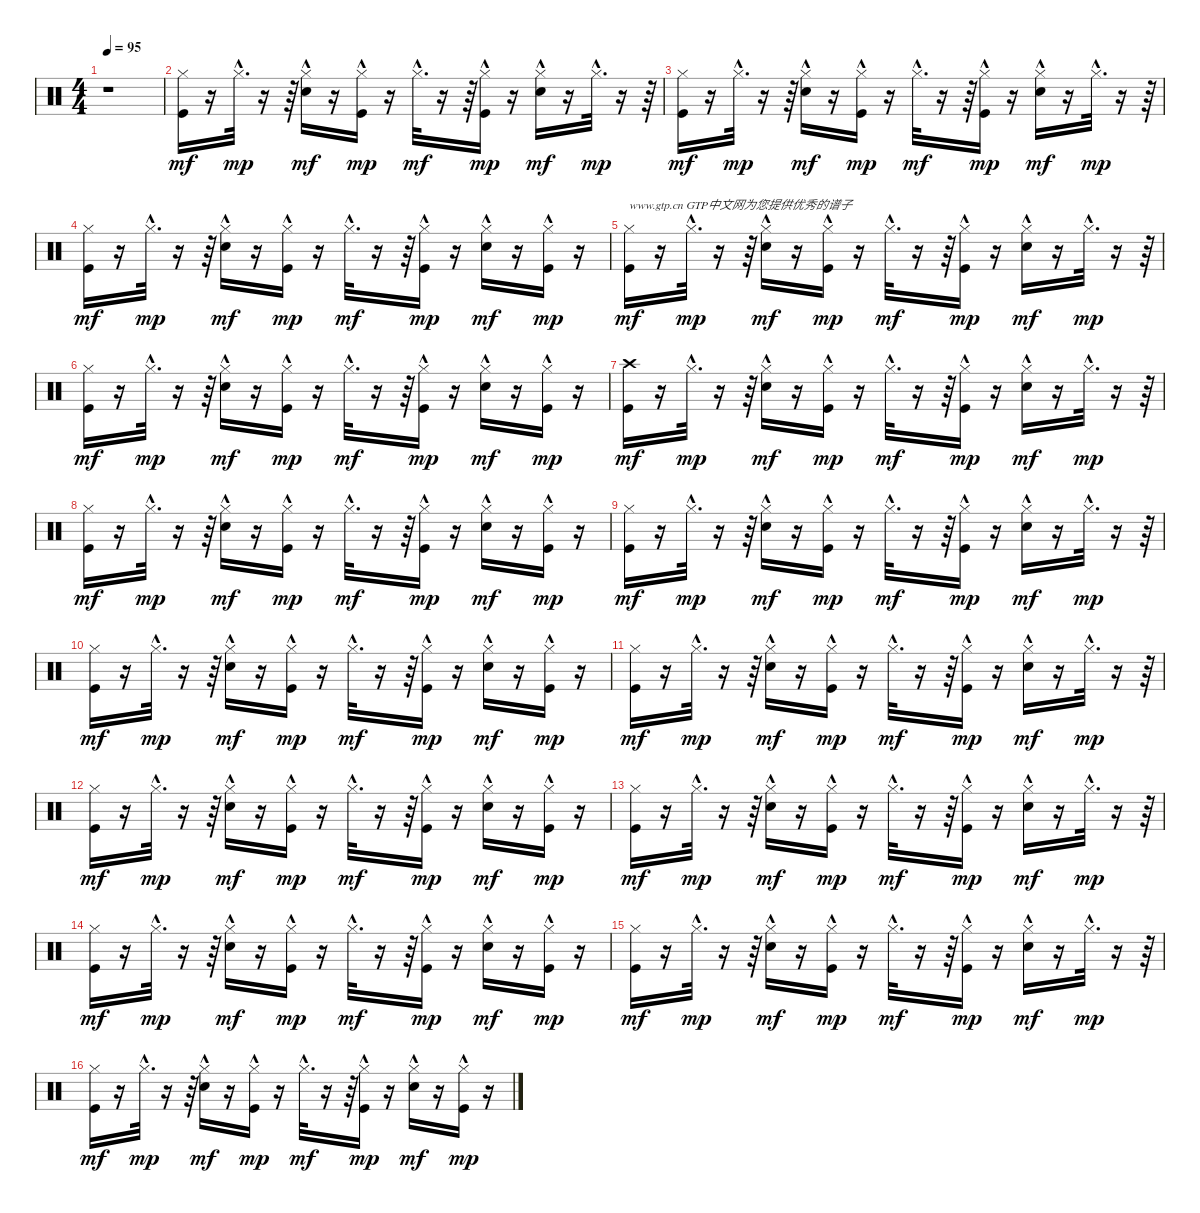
\track "" {instrument percussion}
\staff {score}
\articulation defaults
\ts (4 4)
\tempo 95
\clef neutral
\ks c
r.1{dy mf} |
("Kick (hit)" "Hi-Hat (closed)").16 r.16 "Hi-Hat (closed)"{hac}.32{d dy mp} r.16 r.64 ("Electric Snare (hit)" "Hi-Hat (closed)"{hac}).16{dy mf} r.16 ("Kick (hit)" "Hi-Hat (closed)"{hac}).16{dy mp} r.16 "Hi-Hat (closed)"{hac}.32{d dy mf} r.16 r.64 ("Kick (hit)" "Hi-Hat (closed)"{hac}).16{dy mp} r.16 ("Electric Snare (hit)" "Hi-Hat (closed)"{hac}).16{dy mf} r.16 "Hi-Hat (closed)"{hac}.32{d dy mp} r.16 r.64 |
("Kick (hit)" "Hi-Hat (closed)").16{dy mf} r.16 "Hi-Hat (closed)"{hac}.32{d dy mp} r.16 r.64 ("Electric Snare (hit)" "Hi-Hat (closed)"{hac}).16{dy mf} r.16 ("Kick (hit)" "Hi-Hat (closed)"{hac}).16{dy mp} r.16 "Hi-Hat (closed)"{hac}.32{d dy mf} r.16 r.64 ("Kick (hit)" "Hi-Hat (closed)"{hac}).16{dy mp} r.16 ("Electric Snare (hit)" "Hi-Hat (closed)"{hac}).16{dy mf} r.16 "Hi-Hat (closed)"{hac}.32{d dy mp} r.16 r.64 |
("Kick (hit)" "Hi-Hat (closed)").16{dy mf} r.16 "Hi-Hat (closed)"{hac}.32{d dy mp} r.16 r.64 ("Electric Snare (hit)" "Hi-Hat (closed)"{hac}).16{dy mf} r.16 ("Kick (hit)" "Hi-Hat (closed)"{hac}).16{dy mp} r.16 "Hi-Hat (closed)"{hac}.32{d dy mf} r.16 r.64 ("Kick (hit)" "Hi-Hat (closed)"{hac}).16{dy mp} r.16 ("Electric Snare (hit)" "Hi-Hat (closed)"{hac}).16{dy mf} r.16 ("Kick (hit)" "Hi-Hat (closed)"{hac}).16{dy mp} r.16 |
("Kick (hit)" "Hi-Hat (closed)").16{txt "www.gtp.cn GTP中文网为您提供优秀的谱子" dy mf} r.16 "Hi-Hat (closed)"{hac}.32{d dy mp} r.16 r.64 ("Electric Snare (hit)" "Hi-Hat (closed)"{hac}).16{dy mf} r.16 ("Kick (hit)" "Hi-Hat (closed)"{hac}).16{dy mp} r.16 "Hi-Hat (closed)"{hac}.32{d dy mf} r.16 r.64 ("Kick (hit)" "Hi-Hat (closed)"{hac}).16{dy mp} r.16 ("Electric Snare (hit)" "Hi-Hat (closed)"{hac}).16{dy mf} r.16 "Hi-Hat (closed)"{hac}.32{d dy mp} r.16 r.64 |
("Kick (hit)" "Hi-Hat (closed)").16{dy mf} r.16 "Hi-Hat (closed)"{hac}.32{d dy mp} r.16 r.64 ("Electric Snare (hit)" "Hi-Hat (closed)"{hac}).16{dy mf} r.16 ("Kick (hit)" "Hi-Hat (closed)"{hac}).16{dy mp} r.16 "Hi-Hat (closed)"{hac}.32{d dy mf} r.16 r.64 ("Kick (hit)" "Hi-Hat (closed)"{hac}).16{dy mp} r.16 ("Electric Snare (hit)" "Hi-Hat (closed)"{hac}).16{dy mf} r.16 ("Kick (hit)" "Hi-Hat (closed)"{hac}).16{dy mp} r.16 |
("Kick (hit)" "Crash high (hit)").16{dy mf} r.16 "Hi-Hat (closed)"{hac}.32{d dy mp} r.16 r.64 ("Electric Snare (hit)" "Hi-Hat (closed)"{hac}).16{dy mf} r.16 ("Kick (hit)" "Hi-Hat (closed)"{hac}).16{dy mp} r.16 "Hi-Hat (closed)"{hac}.32{d dy mf} r.16 r.64 ("Kick (hit)" "Hi-Hat (closed)"{hac}).16{dy mp} r.16 ("Electric Snare (hit)" "Hi-Hat (closed)"{hac}).16{dy mf} r.16 "Hi-Hat (closed)"{hac}.32{d dy mp} r.16 r.64 |
("Kick (hit)" "Hi-Hat (closed)").16{dy mf} r.16 "Hi-Hat (closed)"{hac}.32{d dy mp} r.16 r.64 ("Electric Snare (hit)" "Hi-Hat (closed)"{hac}).16{dy mf} r.16 ("Kick (hit)" "Hi-Hat (closed)"{hac}).16{dy mp} r.16 "Hi-Hat (closed)"{hac}.32{d dy mf} r.16 r.64 ("Kick (hit)" "Hi-Hat (closed)"{hac}).16{dy mp} r.16 ("Electric Snare (hit)" "Hi-Hat (closed)"{hac}).16{dy mf} r.16 ("Kick (hit)" "Hi-Hat (closed)"{hac}).16{dy mp} r.16 |
("Kick (hit)" "Hi-Hat (closed)").16{dy mf} r.16 "Hi-Hat (closed)"{hac}.32{d dy mp} r.16 r.64 ("Electric Snare (hit)" "Hi-Hat (closed)"{hac}).16{dy mf} r.16 ("Kick (hit)" "Hi-Hat (closed)"{hac}).16{dy mp} r.16 "Hi-Hat (closed)"{hac}.32{d dy mf} r.16 r.64 ("Kick (hit)" "Hi-Hat (closed)"{hac}).16{dy mp} r.16 ("Electric Snare (hit)" "Hi-Hat (closed)"{hac}).16{dy mf} r.16 "Hi-Hat (closed)"{hac}.32{d dy mp} r.16 r.64 |
("Kick (hit)" "Hi-Hat (closed)").16{dy mf} r.16 "Hi-Hat (closed)"{hac}.32{d dy mp} r.16 r.64 ("Electric Snare (hit)" "Hi-Hat (closed)"{hac}).16{dy mf} r.16 ("Kick (hit)" "Hi-Hat (closed)"{hac}).16{dy mp} r.16 "Hi-Hat (closed)"{hac}.32{d dy mf} r.16 r.64 ("Kick (hit)" "Hi-Hat (closed)"{hac}).16{dy mp} r.16 ("Electric Snare (hit)" "Hi-Hat (closed)"{hac}).16{dy mf} r.16 ("Kick (hit)" "Hi-Hat (closed)"{hac}).16{dy mp} r.16 |
("Kick (hit)" "Hi-Hat (closed)").16{dy mf} r.16 "Hi-Hat (closed)"{hac}.32{d dy mp} r.16 r.64 ("Electric Snare (hit)" "Hi-Hat (closed)"{hac}).16{dy mf} r.16 ("Kick (hit)" "Hi-Hat (closed)"{hac}).16{dy mp} r.16 "Hi-Hat (closed)"{hac}.32{d dy mf} r.16 r.64 ("Kick (hit)" "Hi-Hat (closed)"{hac}).16{dy mp} r.16 ("Electric Snare (hit)" "Hi-Hat (closed)"{hac}).16{dy mf} r.16 "Hi-Hat (closed)"{hac}.32{d dy mp} r.16 r.64 |
("Kick (hit)" "Hi-Hat (closed)").16{dy mf} r.16 "Hi-Hat (closed)"{hac}.32{d dy mp} r.16 r.64 ("Electric Snare (hit)" "Hi-Hat (closed)"{hac}).16{dy mf} r.16 ("Kick (hit)" "Hi-Hat (closed)"{hac}).16{dy mp} r.16 "Hi-Hat (closed)"{hac}.32{d dy mf} r.16 r.64 ("Kick (hit)" "Hi-Hat (closed)"{hac}).16{dy mp} r.16 ("Electric Snare (hit)" "Hi-Hat (closed)"{hac}).16{dy mf} r.16 ("Kick (hit)" "Hi-Hat (closed)"{hac}).16{dy mp} r.16 |
("Kick (hit)" "Hi-Hat (closed)").16{dy mf} r.16 "Hi-Hat (closed)"{hac}.32{d dy mp} r.16 r.64 ("Electric Snare (hit)" "Hi-Hat (closed)"{hac}).16{dy mf} r.16 ("Kick (hit)" "Hi-Hat (closed)"{hac}).16{dy mp} r.16 "Hi-Hat (closed)"{hac}.32{d dy mf} r.16 r.64 ("Kick (hit)" "Hi-Hat (closed)"{hac}).16{dy mp} r.16 ("Electric Snare (hit)" "Hi-Hat (closed)"{hac}).16{dy mf} r.16 "Hi-Hat (closed)"{hac}.32{d dy mp} r.16 r.64 |
("Kick (hit)" "Hi-Hat (closed)").16{dy mf} r.16 "Hi-Hat (closed)"{hac}.32{d dy mp} r.16 r.64 ("Electric Snare (hit)" "Hi-Hat (closed)"{hac}).16{dy mf} r.16 ("Kick (hit)" "Hi-Hat (closed)"{hac}).16{dy mp} r.16 "Hi-Hat (closed)"{hac}.32{d dy mf} r.16 r.64 ("Kick (hit)" "Hi-Hat (closed)"{hac}).16{dy mp} r.16 ("Electric Snare (hit)" "Hi-Hat (closed)"{hac}).16{dy mf} r.16 ("Kick (hit)" "Hi-Hat (closed)"{hac}).16{dy mp} r.16 |
("Kick (hit)" "Hi-Hat (closed)").16{dy mf} r.16 "Hi-Hat (closed)"{hac}.32{d dy mp} r.16 r.64 ("Electric Snare (hit)" "Hi-Hat (closed)"{hac}).16{dy mf} r.16 ("Kick (hit)" "Hi-Hat (closed)"{hac}).16{dy mp} r.16 "Hi-Hat (closed)"{hac}.32{d dy mf} r.16 r.64 ("Kick (hit)" "Hi-Hat (closed)"{hac}).16{dy mp} r.16 ("Electric Snare (hit)" "Hi-Hat (closed)"{hac}).16{dy mf} r.16 "Hi-Hat (closed)"{hac}.32{d dy mp} r.16 r.64 |
("Kick (hit)" "Hi-Hat (closed)").16{dy mf} r.16 "Hi-Hat (closed)"{hac}.32{d dy mp} r.16 r.64 ("Electric Snare (hit)" "Hi-Hat (closed)"{hac}).16{dy mf} r.16 ("Kick (hit)" "Hi-Hat (closed)"{hac}).16{dy mp} r.16 "Hi-Hat (closed)"{hac}.32{d dy mf} r.16 r.64 ("Kick (hit)" "Hi-Hat (closed)"{hac}).16{dy mp} r.16 ("Electric Snare (hit)" "Hi-Hat (closed)"{hac}).16{dy mf} r.16 ("Kick (hit)" "Hi-Hat (closed)"{hac}).16{dy mp} r.16
